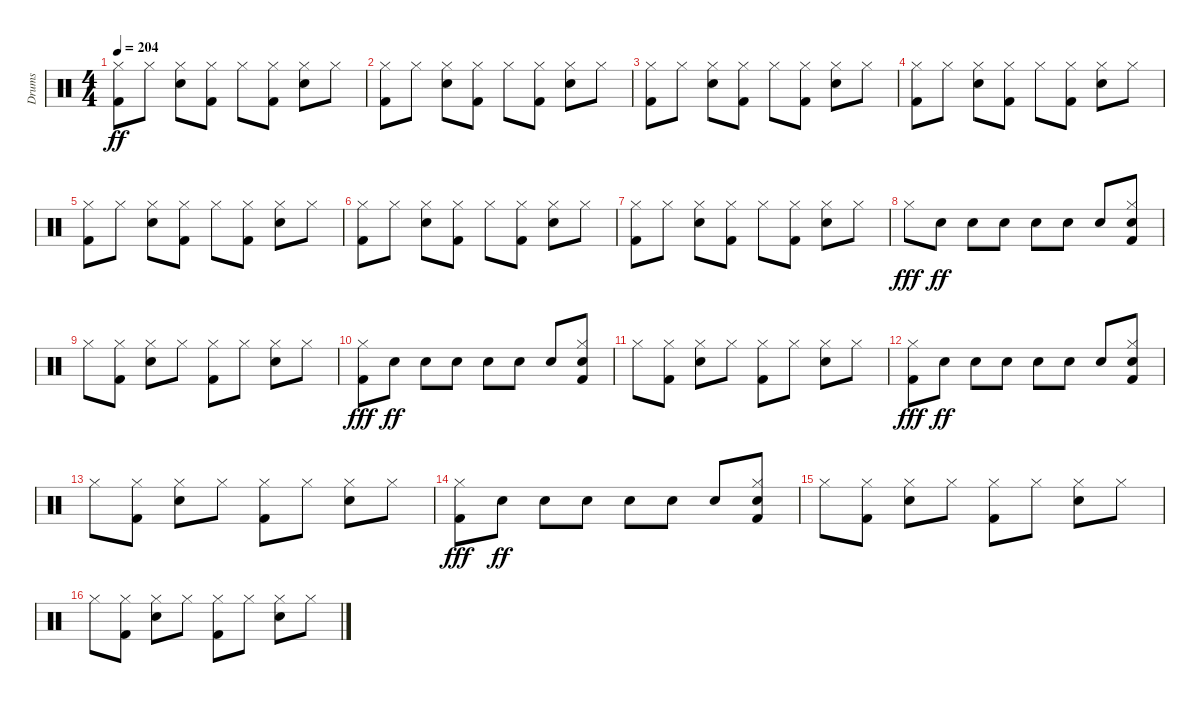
\track ("Drums" "Drums") {instrument percussion}
\staff {score}
\articulation defaults
\ts (4 4)
\tempo 204
\clef neutral
\ks c
("Kick (hit) 2" "Hi-Hat (closed)").8{dy ff} "Hi-Hat (closed)".8 ("Snare (hit) 2" "Hi-Hat (closed)").8 ("Kick (hit) 2" "Hi-Hat (closed)").8 "Hi-Hat (closed)".8 ("Kick (hit) 2" "Hi-Hat (closed)").8 ("Snare (hit) 2" "Hi-Hat (closed)").8 "Hi-Hat (closed)".8 |
("Kick (hit) 2" "Hi-Hat (closed)").8 "Hi-Hat (closed)".8 ("Snare (hit) 2" "Hi-Hat (closed)").8 ("Kick (hit) 2" "Hi-Hat (closed)").8 "Hi-Hat (closed)".8 ("Kick (hit) 2" "Hi-Hat (closed)").8 ("Snare (hit) 2" "Hi-Hat (closed)").8 "Hi-Hat (closed)".8 |
("Kick (hit) 2" "Hi-Hat (closed)").8 "Hi-Hat (closed)".8 ("Snare (hit) 2" "Hi-Hat (closed)").8 ("Kick (hit) 2" "Hi-Hat (closed)").8 "Hi-Hat (closed)".8 ("Kick (hit) 2" "Hi-Hat (closed)").8 ("Snare (hit) 2" "Hi-Hat (closed)").8 "Hi-Hat (closed)".8 |
("Kick (hit) 2" "Hi-Hat (closed)").8 "Hi-Hat (closed)".8 ("Snare (hit) 2" "Hi-Hat (closed)").8 ("Kick (hit) 2" "Hi-Hat (closed)").8 "Hi-Hat (closed)".8 ("Kick (hit) 2" "Hi-Hat (closed)").8 ("Snare (hit) 2" "Hi-Hat (closed)").8 "Hi-Hat (closed)".8 |
("Kick (hit) 2" "Hi-Hat (closed)").8 "Hi-Hat (closed)".8 ("Snare (hit) 2" "Hi-Hat (closed)").8 ("Kick (hit) 2" "Hi-Hat (closed)").8 "Hi-Hat (closed)".8 ("Kick (hit) 2" "Hi-Hat (closed)").8 ("Snare (hit) 2" "Hi-Hat (closed)").8 "Hi-Hat (closed)".8 |
("Kick (hit) 2" "Hi-Hat (closed)").8 "Hi-Hat (closed)".8 ("Snare (hit) 2" "Hi-Hat (closed)").8 ("Kick (hit) 2" "Hi-Hat (closed)").8 "Hi-Hat (closed)".8 ("Kick (hit) 2" "Hi-Hat (closed)").8 ("Snare (hit) 2" "Hi-Hat (closed)").8 "Hi-Hat (closed)".8 |
("Kick (hit) 2" "Hi-Hat (closed)").8 "Hi-Hat (closed)".8 ("Snare (hit) 2" "Hi-Hat (closed)").8 ("Kick (hit) 2" "Hi-Hat (closed)").8 "Hi-Hat (closed)".8 ("Kick (hit) 2" "Hi-Hat (closed)").8 ("Snare (hit) 2" "Hi-Hat (closed)").8 "Hi-Hat (closed)".8 |
"Hi-Hat (closed)".8{dy fff} "Snare (hit) 2".8{dy ff} "Snare (hit) 2".8 "Snare (hit) 2".8 "Snare (hit) 2".8 "Snare (hit) 2".8 "Snare (hit) 2".8 ("Kick (hit) 2" "Snare (hit) 2" "Hi-Hat (closed)").8 |
"Hi-Hat (closed)".8 ("Kick (hit) 2" "Hi-Hat (closed)").8 ("Snare (hit) 2" "Hi-Hat (closed)").8 "Hi-Hat (closed)".8 ("Kick (hit) 2" "Hi-Hat (closed)").8 "Hi-Hat (closed)".8 ("Snare (hit) 2" "Hi-Hat (closed)").8 "Hi-Hat (closed)".8 |
("Kick (hit) 2" "Hi-Hat (closed)").8{dy fff} "Snare (hit) 2".8{dy ff} "Snare (hit) 2".8 "Snare (hit) 2".8 "Snare (hit) 2".8 "Snare (hit) 2".8 "Snare (hit) 2".8 ("Kick (hit) 2" "Snare (hit) 2" "Hi-Hat (closed)").8 |
"Hi-Hat (closed)".8 ("Kick (hit) 2" "Hi-Hat (closed)").8 ("Snare (hit) 2" "Hi-Hat (closed)").8 "Hi-Hat (closed)".8 ("Kick (hit) 2" "Hi-Hat (closed)").8 "Hi-Hat (closed)".8 ("Snare (hit) 2" "Hi-Hat (closed)").8 "Hi-Hat (closed)".8 |
("Kick (hit) 2" "Hi-Hat (closed)").8{dy fff} "Snare (hit) 2".8{dy ff} "Snare (hit) 2".8 "Snare (hit) 2".8 "Snare (hit) 2".8 "Snare (hit) 2".8 "Snare (hit) 2".8 ("Kick (hit) 2" "Snare (hit) 2" "Hi-Hat (closed)").8 |
"Hi-Hat (closed)".8 ("Kick (hit) 2" "Hi-Hat (closed)").8 ("Snare (hit) 2" "Hi-Hat (closed)").8 "Hi-Hat (closed)".8 ("Kick (hit) 2" "Hi-Hat (closed)").8 "Hi-Hat (closed)".8 ("Snare (hit) 2" "Hi-Hat (closed)").8 "Hi-Hat (closed)".8 |
("Kick (hit) 2" "Hi-Hat (closed)").8{dy fff} "Snare (hit) 2".8{dy ff} "Snare (hit) 2".8 "Snare (hit) 2".8 "Snare (hit) 2".8 "Snare (hit) 2".8 "Snare (hit) 2".8 ("Kick (hit) 2" "Snare (hit) 2" "Hi-Hat (closed)").8 |
"Hi-Hat (closed)".8 ("Kick (hit) 2" "Hi-Hat (closed)").8 ("Snare (hit) 2" "Hi-Hat (closed)").8 "Hi-Hat (closed)".8 ("Kick (hit) 2" "Hi-Hat (closed)").8 "Hi-Hat (closed)".8 ("Snare (hit) 2" "Hi-Hat (closed)").8 "Hi-Hat (closed)".8 |
"Hi-Hat (closed)".8 ("Kick (hit) 2" "Hi-Hat (closed)").8 ("Snare (hit) 2" "Hi-Hat (closed)").8 "Hi-Hat (closed)".8 ("Kick (hit) 2" "Hi-Hat (closed)").8 "Hi-Hat (closed)".8 ("Snare (hit) 2" "Hi-Hat (closed)").8 "Hi-Hat (closed)".8
